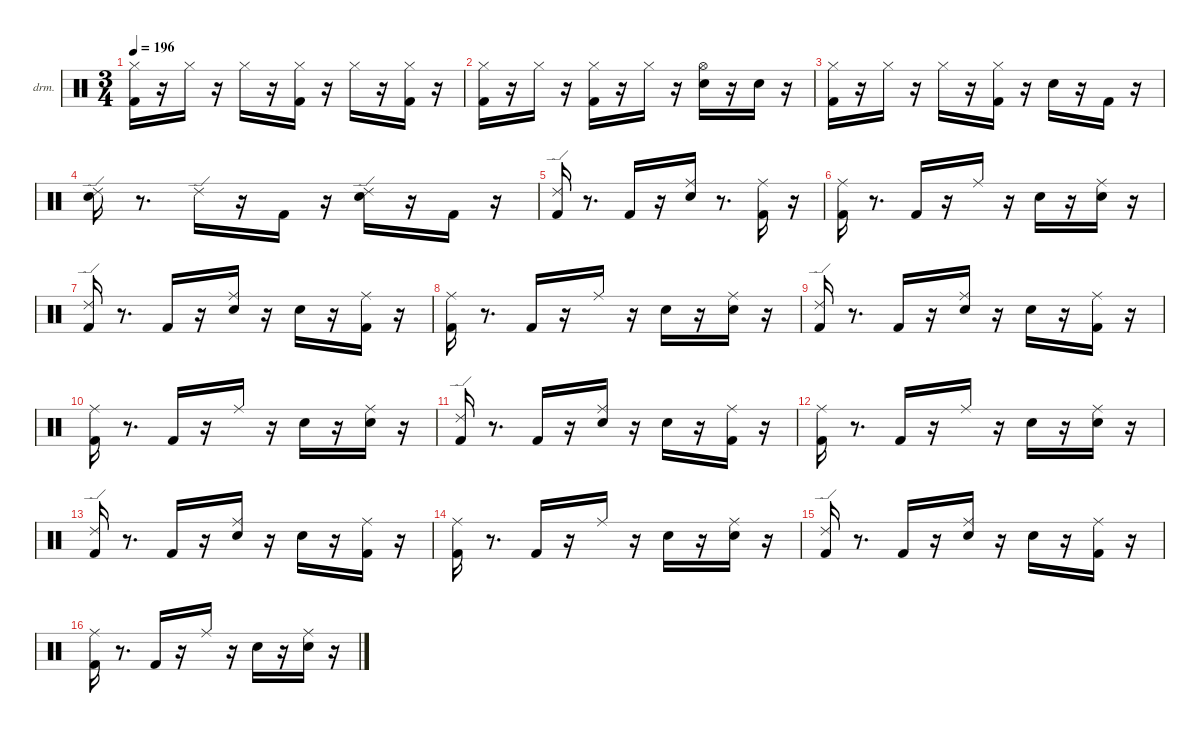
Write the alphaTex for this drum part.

\hideDynamics
\bracketExtendMode nobrackets
\firstSystemTrackNameOrientation horizontal
\otherSystemsTrackNameOrientation horizontal
\track ("EZdrummer 3" "drm.") {instrument percussion}
\staff {score}
\articulation defaults
\ts (3 4)
\tempo 196
\clef neutral
\ks aminor
("Kick (hit) 2" "Hi-Hat (closed)"{acc #}).16{dy fff beam Down} r.16{beam Down} "Hi-Hat (closed)"{acc #}.16{dy ppp beam Down} r.16{beam Down} "Hi-Hat (closed)"{acc #}.16{beam Down} r.16{beam Down} ("Kick (hit) 2" "Hi-Hat (closed)"{acc #}).16{dy mf beam Down} r.16{beam Down} "Hi-Hat (closed)"{acc #}.16{dy ppp beam Down} r.16{beam Down} ("Kick (hit) 2" "Hi-Hat (closed)"{acc #}).16{dy f beam Down} r.16{beam Down} |
("Kick (hit) 2" "Hi-Hat (closed)"{acc #}).16{dy fff beam Down} r.16{beam Down} "Hi-Hat (closed)"{acc #}.16{dy pp beam Down} r.16{beam Down} ("Kick (hit) 2" "Hi-Hat (closed)"{acc #}).16{dy mf beam Down} r.16{beam Down} "Hi-Hat (closed)"{acc #}.16{dy pp beam Down} r.16{beam Down} ("Snare (hit) 2" "Hi-Hat (open)"{acc #}).16{dy mf beam Down} r.16{beam Down} "Snare (hit) 2".16{dy ppp beam Down} r.16{beam Down} |
("Kick (hit) 2" "Hi-Hat (closed)"{acc #}).16{dy fff beam Down} r.16{beam Down} "Hi-Hat (closed)"{acc #}.16{dy ppp beam Down} r.16{beam Down} "Hi-Hat (closed)"{acc #}.16{beam Down} r.16{beam Down} ("Kick (hit) 2" "Hi-Hat (closed)"{acc #}).16{dy mf beam Down} r.16{beam Down} "Snare (hit) 2".16{dy ff beam Down} r.16{beam Down} "Kick (hit) 2".16{beam Up} r.16{beam Up} |
("Snare (hit) 2" "Ride (edge) 2").16{beam Down} r.8{d beam Down} "Ride (edge) 2".16{dy mf beam Down} r.16{beam Down} "Kick (hit) 2".16{dy ff beam Up} r.16{beam Up} ("Snare (hit) 2" "Ride (edge) 2").16{beam Down} r.16{beam Down} "Kick (hit) 2".16{dy mf beam Up} r.16{beam Up} |
("Kick (hit) 2" "Ride (edge) 2").16{dy fff beam Up} r.8{d beam Up} "Kick (hit) 2".16{dy ff beam Up} r.16{beam Up} ("Snare (hit) 2" "Ride (middle)"{acc #}).16{dy f beam Down} r.8{d beam Down} ("Kick (hit) 2" "Ride (middle)"{acc #}).16{beam Down} r.16{beam Down} |
("Kick (hit) 2" "Ride (middle)"{acc #}).16{dy fff beam Down} r.8{d beam Down} "Kick (hit) 2".16{dy ff beam Up} r.16{beam Up} "Ride (middle)"{acc #}.16{beam Down} r.16{beam Down} "Snare (hit) 2".16{dy f beam Down} r.16{beam Down} ("Snare (hit) 2" "Ride (middle)"{acc #}).16{dy pp beam Down} r.16{beam Down} |
("Kick (hit) 2" "Ride (edge) 2").16{dy fff beam Up} r.8{d beam Up} "Kick (hit) 2".16{dy ff beam Up} r.16{beam Up} ("Snare (hit) 2" "Ride (middle)"{acc #}).16{dy f beam Down} r.16{beam Down} "Snare (hit) 2".16{dy ppp beam Down} r.16{beam Down} ("Kick (hit) 2" "Ride (middle)"{acc #}).16{dy f beam Down} r.16{beam Down} |
("Kick (hit) 2" "Ride (middle)"{acc #}).16{dy fff beam Down} r.8{d beam Down} "Kick (hit) 2".16{dy ff beam Up} r.16{beam Up} "Ride (middle)"{acc #}.16{beam Down} r.16{beam Down} "Snare (hit) 2".16{dy f beam Down} r.16{beam Down} ("Snare (hit) 2" "Ride (middle)"{acc #}).16{dy ppp beam Down} r.16{beam Down} |
("Kick (hit) 2" "Ride (edge) 2").16{dy fff beam Up} r.8{d beam Up} "Kick (hit) 2".16{dy ff beam Up} r.16{beam Up} ("Snare (hit) 2" "Ride (middle)"{acc #}).16{dy f beam Down} r.16{beam Down} "Snare (hit) 2".16{dy ppp beam Down} r.16{beam Down} ("Kick (hit) 2" "Ride (middle)"{acc #}).16{dy f beam Down} r.16{beam Down} |
("Kick (hit) 2" "Ride (middle)"{acc #}).16{dy fff beam Down} r.8{d beam Down} "Kick (hit) 2".16{dy ff beam Up} r.16{beam Up} "Ride (middle)"{acc #}.16{beam Down} r.16{beam Down} "Snare (hit) 2".16{dy f beam Down} r.16{beam Down} ("Snare (hit) 2" "Ride (middle)"{acc #}).16{dy ppp beam Down} r.16{beam Down} |
("Kick (hit) 2" "Ride (edge) 2").16{dy fff beam Up} r.8{d beam Up} "Kick (hit) 2".16{dy ff beam Up} r.16{beam Up} ("Snare (hit) 2" "Ride (middle)"{acc #}).16{dy f beam Down} r.16{beam Down} "Snare (hit) 2".16{dy ppp beam Down} r.16{beam Down} ("Kick (hit) 2" "Ride (middle)"{acc #}).16{dy f beam Down} r.16{beam Down} |
("Kick (hit) 2" "Ride (middle)"{acc #}).16{dy fff beam Down} r.8{d beam Down} "Kick (hit) 2".16{dy ff beam Up} r.16{beam Up} "Ride (middle)"{acc #}.16{beam Down} r.16{beam Down} "Snare (hit) 2".16{dy f beam Down} r.16{beam Down} ("Snare (hit) 2" "Ride (middle)"{acc #}).16{dy ppp beam Down} r.16{beam Down} |
("Kick (hit) 2" "Ride (edge) 2").16{dy fff beam Up} r.8{d beam Up} "Kick (hit) 2".16{dy ff beam Up} r.16{beam Up} ("Snare (hit) 2" "Ride (middle)"{acc #}).16{dy f beam Down} r.16{beam Down} "Snare (hit) 2".16{dy ppp beam Down} r.16{beam Down} ("Kick (hit) 2" "Ride (middle)"{acc #}).16{dy f beam Down} r.16{beam Down} |
("Kick (hit) 2" "Ride (middle)"{acc #}).16{dy fff beam Down} r.8{d beam Down} "Kick (hit) 2".16{dy ff beam Up} r.16{beam Up} "Ride (middle)"{acc #}.16{beam Down} r.16{beam Down} "Snare (hit) 2".16{dy f beam Down} r.16{beam Down} ("Snare (hit) 2" "Ride (middle)"{acc #}).16{dy ppp beam Down} r.16{beam Down} |
("Kick (hit) 2" "Ride (edge) 2").16{dy fff beam Up} r.8{d beam Up} "Kick (hit) 2".16{dy ff beam Up} r.16{beam Up} ("Snare (hit) 2" "Ride (middle)"{acc #}).16{dy f beam Down} r.16{beam Down} "Snare (hit) 2".16{dy ppp beam Down} r.16{beam Down} ("Kick (hit) 2" "Ride (middle)"{acc #}).16{dy f beam Down} r.16{beam Down} |
("Kick (hit) 2" "Ride (middle)"{acc #}).16{dy fff beam Down} r.8{d beam Down} "Kick (hit) 2".16{dy ff beam Up} r.16{beam Up} "Ride (middle)"{acc #}.16{beam Down} r.16{beam Down} "Snare (hit) 2".16{dy f beam Down} r.16{beam Down} ("Snare (hit) 2" "Ride (middle)"{acc #}).16{dy ppp beam Down} r.16{beam Down}
